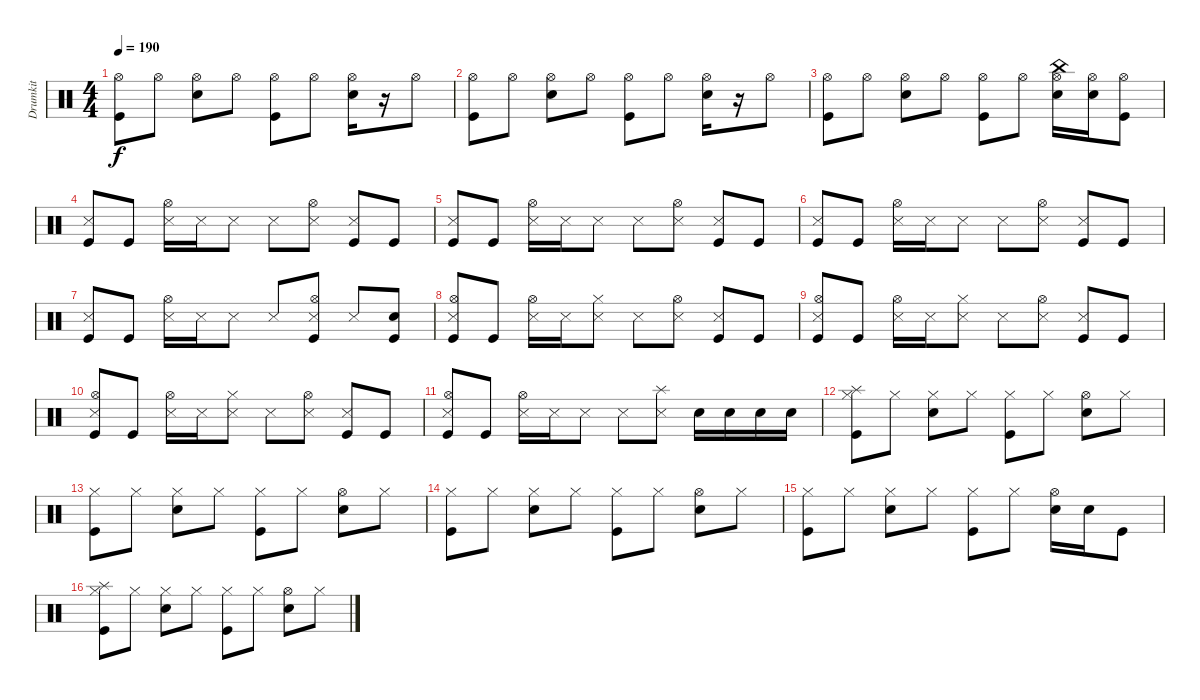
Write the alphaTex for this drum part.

\track ("Drumkit" "Drumkit") {instrument percussion}
\staff {score}
\articulation defaults
\ts (4 4)
\tempo 190
\clef neutral
\ks c
("Kick (hit)" "Hi-Hat (open)").8{dy f} "Hi-Hat (open)".8 ("Snare (hit) 2" "Hi-Hat (open)").8 "Hi-Hat (open)".8 ("Kick (hit)" "Hi-Hat (open)").8 "Hi-Hat (open)".8 ("Snare (hit) 2" "Hi-Hat (open)").16 r.16 "Hi-Hat (open)".8 |
("Kick (hit)" "Hi-Hat (open)").8 "Hi-Hat (open)".8 ("Snare (hit) 2" "Hi-Hat (open)").8 "Hi-Hat (open)".8 ("Kick (hit)" "Hi-Hat (open)").8 "Hi-Hat (open)".8 ("Snare (hit) 2" "Hi-Hat (open)").16 r.16 "Hi-Hat (open)".8 |
("Kick (hit)" "Hi-Hat (open)").8 "Hi-Hat (open)".8 ("Snare (hit) 2" "Hi-Hat (open)").8 "Hi-Hat (open)".8 ("Kick (hit)" "Hi-Hat (open)").8 "Hi-Hat (open)".8 ("Snare (hit) 2" "Hi-Hat (open)" "China (hit)").16 ("Snare (hit) 2" "Hi-Hat (open)").16 ("Kick (hit)" "Hi-Hat (open)").8 |
("Kick (hit)" "Snare (side stick) 3").8 "Kick (hit)".8 ("Snare (side stick) 3" "Hi-Hat (open)").16 "Snare (side stick) 3".16 "Snare (side stick) 3".8 "Snare (side stick) 3".8 ("Snare (side stick) 3" "Hi-Hat (open)").8 ("Kick (hit)" "Snare (side stick) 3").8 "Kick (hit)".8 |
("Kick (hit)" "Snare (side stick) 3").8 "Kick (hit)".8 ("Snare (side stick) 3" "Hi-Hat (open)").16 "Snare (side stick) 3".16 "Snare (side stick) 3".8 "Snare (side stick) 3".8 ("Snare (side stick) 3" "Hi-Hat (open)").8 ("Kick (hit)" "Snare (side stick) 3").8 "Kick (hit)".8 |
("Kick (hit)" "Snare (side stick) 3").8 "Kick (hit)".8 ("Snare (side stick) 3" "Hi-Hat (open)").16 "Snare (side stick) 3".16 "Snare (side stick) 3".8 "Snare (side stick) 3".8 ("Snare (side stick) 3" "Hi-Hat (open)").8 ("Kick (hit)" "Snare (side stick) 3").8 "Kick (hit)".8 |
("Kick (hit)" "Snare (side stick) 3").8 "Kick (hit)".8 ("Snare (side stick) 3" "Hi-Hat (open)").16 "Snare (side stick) 3".16 "Snare (side stick) 3".8 "Snare (side stick) 3".8 ("Snare (side stick) 3" "Hi-Hat (open)" "Kick (hit)").8 "Snare (side stick) 3".8 ("Kick (hit)" "Snare (hit) 2").8 |
("Kick (hit)" "Snare (side stick) 3" "Hi-Hat (open)").8 "Kick (hit)".8 ("Snare (side stick) 3" "Hi-Hat (open)").16 "Snare (side stick) 3".16 ("Snare (side stick) 3" "Hi-Hat (closed)").8 "Snare (side stick) 3".8 ("Snare (side stick) 3" "Hi-Hat (open)").8 ("Kick (hit)" "Snare (side stick) 3").8 "Kick (hit)".8 |
("Kick (hit)" "Snare (side stick) 3" "Hi-Hat (open)").8 "Kick (hit)".8 ("Snare (side stick) 3" "Hi-Hat (open)").16 "Snare (side stick) 3".16 ("Snare (side stick) 3" "Hi-Hat (closed)").8 "Snare (side stick) 3".8 ("Snare (side stick) 3" "Hi-Hat (open)").8 ("Kick (hit)" "Snare (side stick) 3").8 "Kick (hit)".8 |
("Kick (hit)" "Snare (side stick) 3" "Hi-Hat (open)").8 "Kick (hit)".8 ("Snare (side stick) 3" "Hi-Hat (open)").16 "Snare (side stick) 3".16 ("Snare (side stick) 3" "Hi-Hat (closed)").8 "Snare (side stick) 3".8 ("Snare (side stick) 3" "Hi-Hat (open)").8 ("Kick (hit)" "Snare (side stick) 3").8 "Kick (hit)".8 |
("Kick (hit)" "Snare (side stick) 3" "Hi-Hat (open)").8 "Kick (hit)".8 ("Snare (side stick) 3" "Hi-Hat (open)").16 "Snare (side stick) 3".16 "Snare (side stick) 3".8 "Snare (side stick) 3".8 ("Snare (side stick) 3" "Splash (hit)").8 "Snare (hit) 2".16 "Snare (hit) 2".16 "Snare (hit) 2".16 "Snare (hit) 2".16 |
("Kick (hit)" "Hi-Hat (closed)" "Splash (hit)").8 "Hi-Hat (closed)".8 ("Snare (hit) 2" "Hi-Hat (closed)").8 "Hi-Hat (closed)".8 ("Hi-Hat (closed)" "Kick (hit)").8 "Hi-Hat (closed)".8 ("Hi-Hat (open)" "Snare (hit) 2").8 "Hi-Hat (closed)".8 |
("Kick (hit)" "Hi-Hat (closed)").8 "Hi-Hat (closed)".8 ("Snare (hit) 2" "Hi-Hat (closed)").8 "Hi-Hat (closed)".8 ("Hi-Hat (closed)" "Kick (hit)").8 "Hi-Hat (closed)".8 ("Hi-Hat (open)" "Snare (hit) 2").8 "Hi-Hat (closed)".8 |
("Kick (hit)" "Hi-Hat (closed)").8 "Hi-Hat (closed)".8 ("Snare (hit) 2" "Hi-Hat (closed)").8 "Hi-Hat (closed)".8 ("Hi-Hat (closed)" "Kick (hit)").8 "Hi-Hat (closed)".8 ("Hi-Hat (open)" "Snare (hit) 2").8 "Hi-Hat (closed)".8 |
("Kick (hit)" "Hi-Hat (closed)").8 "Hi-Hat (closed)".8 ("Snare (hit) 2" "Hi-Hat (closed)").8 "Hi-Hat (closed)".8 ("Hi-Hat (closed)" "Kick (hit)").8 "Hi-Hat (closed)".8 ("Hi-Hat (open)" "Snare (hit) 2").16 "Snare (hit) 2".16 "Kick (hit)".8 |
("Kick (hit)" "Hi-Hat (closed)" "Splash (hit)").8 "Hi-Hat (closed)".8 ("Snare (hit) 2" "Hi-Hat (closed)").8 "Hi-Hat (closed)".8 ("Hi-Hat (closed)" "Kick (hit)").8 "Hi-Hat (closed)".8 ("Hi-Hat (open)" "Snare (hit) 2").8 "Hi-Hat (closed)".8
